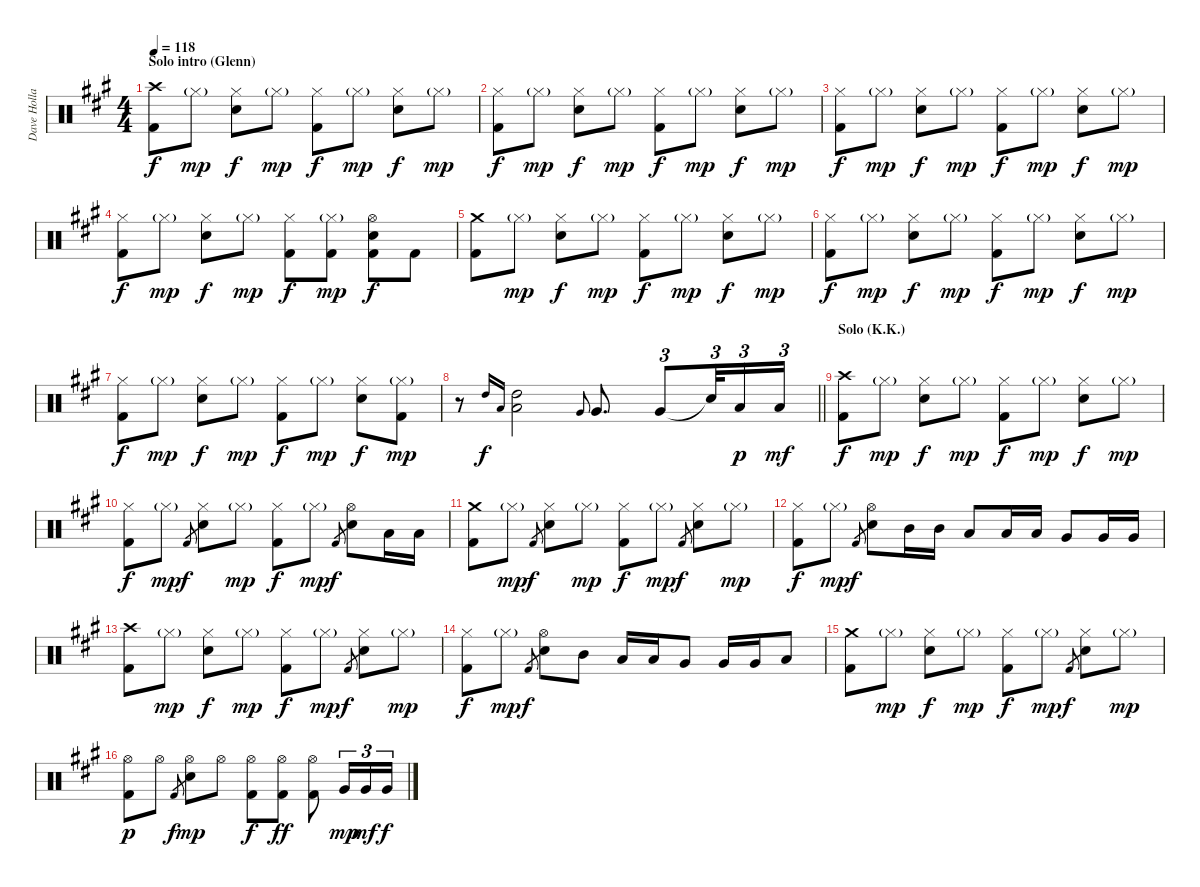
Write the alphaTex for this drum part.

\track ("Dave Holland" "Dave Holla") {instrument percussion}
\staff {score}
\articulation defaults
\ts (4 4)
\section ("" "Solo intro (Glenn)")
\tempo 118
\clef neutral
\ks f#minor
("Crash high (hit)" "Kick (hit) 2").8{dy f} "Hi-Hat (closed)"{g}.8{dy mp} ("Hi-Hat (closed)" "Snare (hit) 2").8{dy f} "Hi-Hat (closed)"{g}.8{dy mp} ("Hi-Hat (closed)" "Kick (hit) 2").8{dy f} "Hi-Hat (closed)"{g}.8{dy mp} ("Hi-Hat (closed)" "Snare (hit) 2").8{dy f} "Hi-Hat (closed)"{g}.8{dy mp} |
("Hi-Hat (closed)" "Kick (hit) 2").8{dy f} "Hi-Hat (closed)"{g}.8{dy mp} ("Hi-Hat (closed)" "Snare (hit) 2").8{dy f} "Hi-Hat (closed)"{g}.8{dy mp} ("Hi-Hat (closed)" "Kick (hit) 2").8{dy f} "Hi-Hat (closed)"{g}.8{dy mp} ("Hi-Hat (closed)" "Snare (hit) 2").8{dy f} "Hi-Hat (closed)"{g}.8{dy mp} |
("Hi-Hat (closed)" "Kick (hit) 2").8{dy f} "Hi-Hat (closed)"{g}.8{dy mp} ("Hi-Hat (closed)" "Snare (hit) 2").8{dy f} "Hi-Hat (closed)"{g}.8{dy mp} ("Hi-Hat (closed)" "Kick (hit) 2").8{dy f} "Hi-Hat (closed)"{g}.8{dy mp} ("Hi-Hat (closed)" "Snare (hit) 2").8{dy f} "Hi-Hat (closed)"{g}.8{dy mp} |
("Hi-Hat (closed)" "Kick (hit) 2").8{dy f} "Hi-Hat (closed)"{g}.8{dy mp} ("Hi-Hat (closed)" "Snare (hit) 2").8{dy f} "Hi-Hat (closed)"{g}.8{dy mp} ("Hi-Hat (closed)" "Kick (hit) 2").8{dy f} ("Hi-Hat (closed)"{g} "Kick (hit) 2").8{dy mp} ("Hi-Hat (open)" "Snare (hit) 2" "Kick (hit) 2").8{dy f} "Kick (hit) 2".8 |
("Crash medium (hit)" "Kick (hit) 2").8 "Hi-Hat (closed)"{g}.8{dy mp} ("Hi-Hat (closed)" "Snare (hit) 2").8{dy f} "Hi-Hat (closed)"{g}.8{dy mp} ("Hi-Hat (closed)" "Kick (hit) 2").8{dy f} "Hi-Hat (closed)"{g}.8{dy mp} ("Hi-Hat (closed)" "Snare (hit) 2").8{dy f} "Hi-Hat (closed)"{g}.8{dy mp} |
("Hi-Hat (closed)" "Kick (hit) 2").8{dy f} "Hi-Hat (closed)"{g}.8{dy mp} ("Hi-Hat (closed)" "Snare (hit) 2").8{dy f} "Hi-Hat (closed)"{g}.8{dy mp} ("Hi-Hat (closed)" "Kick (hit) 2").8{dy f} "Hi-Hat (closed)"{g}.8{dy mp} ("Hi-Hat (closed)" "Snare (hit) 2").8{dy f} "Hi-Hat (closed)"{g}.8{dy mp} |
("Hi-Hat (closed)" "Kick (hit) 2").8{dy f} "Hi-Hat (closed)"{g}.8{dy mp} ("Hi-Hat (closed)" "Snare (hit) 2").8{dy f} "Hi-Hat (closed)"{g}.8{dy mp} ("Hi-Hat (closed)" "Kick (hit) 2").8{dy f} "Hi-Hat (closed)"{g}.8{dy mp} ("Hi-Hat (closed)" "Snare (hit) 2").8{dy f} ("Hi-Hat (closed)"{g} "Kick (hit) 2").8{dy mp} |
\barLineRight lightlight
r.8 "High Tom (hit)".16{gr onbeat dy f} "Low Tom (hit)".16{gr onbeat} ("High Tom (hit)" "Low Tom (hit)").2 "Very Low Tom (hit)".8{gr onbeat} "Very Low Tom (hit)".8{d} "Very Low Tom (hit)".8{tu (3 2)} "Snare (hit)"{t}.32{tu (3 2)} "Low Floor Tom (hit)".16{tu (3 2) dy p} "Low Floor Tom (hit)".16{tu (3 2) dy mf} |
\section ("" "Solo (K.K.)")
("Crash high (hit)" "Kick (hit) 2").8{dy f} "Hi-Hat (closed)"{g}.8{dy mp} ("Hi-Hat (closed)" "Snare (hit) 2").8{dy f} "Hi-Hat (closed)"{g}.8{dy mp} ("Hi-Hat (closed)" "Kick (hit) 2").8{dy f} "Hi-Hat (closed)"{g}.8{dy mp} ("Hi-Hat (closed)" "Snare (hit) 2").8{dy f} "Hi-Hat (closed)"{g}.8{dy mp} |
("Hi-Hat (closed)" "Kick (hit) 2").8{dy f} "Hi-Hat (closed)"{g}.8{dy mp} "Kick (hit) 2".8{gr dy f} ("Hi-Hat (closed)" "Snare (hit) 2").8 "Hi-Hat (closed)"{g}.8{dy mp} ("Hi-Hat (closed)" "Kick (hit) 2").8{dy f} "Hi-Hat (closed)"{g}.8{dy mp} "Kick (hit) 2".8{gr dy f} ("Hi-Hat (open)" "Snare (hit) 2").8 "Low Tom (hit)".16 "Low Tom (hit)".16 |
("Crash medium (hit)" "Kick (hit) 2").8 "Hi-Hat (closed)"{g}.8{dy mp} "Kick (hit) 2".8{gr dy f} ("Hi-Hat (closed)" "Snare (hit) 2").8 "Hi-Hat (closed)"{g}.8{dy mp} ("Hi-Hat (closed)" "Kick (hit) 2").8{dy f} "Hi-Hat (closed)"{g}.8{dy mp} "Kick (hit) 2".8{gr dy f} ("Hi-Hat (closed)" "Snare (hit) 2").8 "Hi-Hat (closed)"{g}.8{dy mp} |
("Hi-Hat (closed)" "Kick (hit) 2").8{dy f} "Hi-Hat (closed)"{g}.8{dy mp} "Kick (hit) 2".8{gr dy f} ("Hi-Hat (open)" "Snare (hit) 2").8 "Mid Tom (hit)".16 "Mid Tom (hit)".16 "Low Tom (hit)".8 "Low Tom (hit)".16 "Low Tom (hit)".16 "Very Low Tom (hit)".8 "Very Low Tom (hit)".16 "Very Low Tom (hit)".16 |
("Crash high (hit)" "Kick (hit) 2").8 "Hi-Hat (closed)"{g}.8{dy mp} ("Hi-Hat (closed)" "Snare (hit) 2").8{dy f} "Hi-Hat (closed)"{g}.8{dy mp} ("Hi-Hat (closed)" "Kick (hit) 2").8{dy f} "Hi-Hat (closed)"{g}.8{dy mp} "Kick (hit) 2".8{gr dy f} ("Hi-Hat (closed)" "Snare (hit) 2").8 "Hi-Hat (closed)"{g}.8{dy mp} |
("Hi-Hat (closed)" "Kick (hit) 2").8{dy f} "Hi-Hat (closed)"{g}.8{dy mp} "Kick (hit) 2".8{gr dy f} ("Hi-Hat (open)" "Snare (hit) 2").8 "Mid Tom (hit)".8 "Low Tom (hit)".16 "Low Tom (hit)".16 "Very Low Tom (hit)".8 "Very Low Tom (hit)".16 "Very Low Tom (hit)".16 "Low Floor Tom (hit)".8 |
("Crash medium (hit)" "Kick (hit) 2").8 "Hi-Hat (closed)"{g}.8{dy mp} ("Hi-Hat (closed)" "Snare (hit) 2").8{dy f} "Hi-Hat (closed)"{g}.8{dy mp} ("Hi-Hat (closed)" "Kick (hit) 2").8{dy f} "Hi-Hat (closed)"{g}.8{dy mp} "Kick (hit) 2".8{gr dy f} ("Hi-Hat (closed)" "Snare (hit) 2").8 "Hi-Hat (closed)"{g}.8{dy mp} |
("Hi-Hat (open)" "Kick (hit) 2").8{dy p} "Hi-Hat (open)".8 "Kick (hit) 2".8{gr dy f} ("Hi-Hat (open)" "Snare (hit) 2").8{dy mp} "Hi-Hat (open)".8 ("Hi-Hat (open)" "Kick (hit) 2").8{dy f} ("Hi-Hat (open)" "Kick (hit) 2").8{dy ff} ("Hi-Hat (open)" "Kick (hit) 2").8 "Very Low Tom (hit)".16{tu (3 2) dy mp} "Very Low Tom (hit)".16{tu (3 2) dy mf} "Very Low Tom (hit)".16{tu (3 2) dy f}
